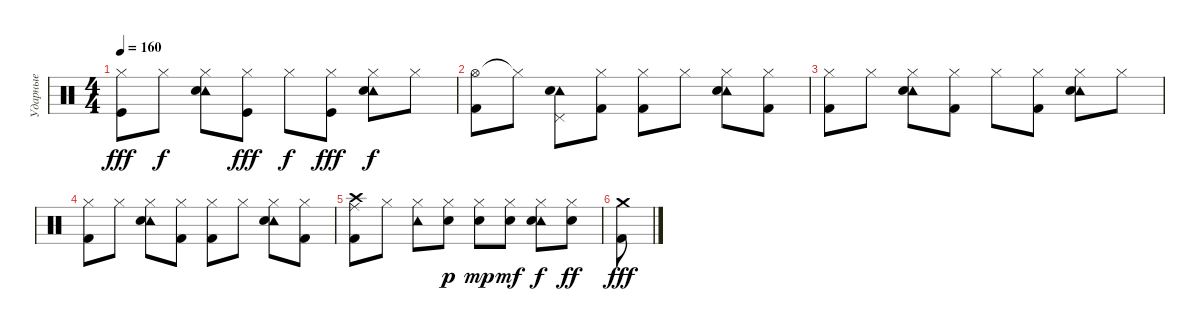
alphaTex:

\track ("Ударные" "Ударные") {instrument percussion}
\staff {score}
\articulation defaults
\ts (4 4)
\tempo 160
\clef neutral
\ks c
("Hi-Hat (closed)" "Kick (hit)").8{dy fff} "Hi-Hat (closed)".8{dy f} ("Hi-Hat (closed)" "Tambourine (hit)" "Snare (hit) 2").8 ("Hi-Hat (closed)" "Kick (hit)").8{dy fff} "Hi-Hat (closed)".8{dy f} ("Hi-Hat (closed)" "Kick (hit)").8{dy fff} ("Hi-Hat (closed)" "Tambourine (hit)" "Snare (hit) 2").8{dy f} "Hi-Hat (closed)".8 |
("Hi-Hat (open)" "Kick (hit) 2").8 "Hi-Hat (closed)"{t}.8 ("Pedal Hi-Hat (hit)" "Tambourine (hit)" "Snare (hit) 2").8 ("Hi-Hat (closed)" "Kick (hit) 2").8 ("Hi-Hat (closed)" "Kick (hit) 2").8 "Hi-Hat (closed)".8 ("Hi-Hat (closed)" "Tambourine (hit)" "Snare (hit) 2").8 ("Hi-Hat (closed)" "Kick (hit) 2").8 |
("Hi-Hat (closed)" "Kick (hit) 2").8 "Hi-Hat (closed)".8 ("Hi-Hat (closed)" "Tambourine (hit)" "Snare (hit) 2").8 ("Hi-Hat (closed)" "Kick (hit) 2").8 "Hi-Hat (closed)".8 ("Hi-Hat (closed)" "Kick (hit) 2").8 ("Hi-Hat (closed)" "Tambourine (hit)" "Snare (hit) 2").8 "Hi-Hat (closed)".8 |
("Hi-Hat (closed)" "Kick (hit) 2").8 "Hi-Hat (closed)".8 ("Hi-Hat (closed)" "Tambourine (hit)" "Snare (hit) 2").8 ("Hi-Hat (closed)" "Kick (hit) 2").8 ("Hi-Hat (closed)" "Kick (hit) 2").8 "Hi-Hat (closed)".8 ("Hi-Hat (closed)" "Tambourine (hit)" "Snare (hit) 2").8 ("Hi-Hat (closed)" "Kick (hit) 2").8 |
("Crash high (hit)" "Ride (middle)" "Kick (hit) 2").8 "Hi-Hat (closed)".8 ("Hi-Hat (closed)" "Tambourine (hit)").8 ("Hi-Hat (closed)" "Snare (hit) 2").8{dy p} ("Hi-Hat (closed)" "Snare (hit) 2").8{dy mp} ("Hi-Hat (closed)" "Snare (hit) 2").8{dy mf} ("Hi-Hat (closed)" "Tambourine (hit)" "Snare (hit) 2").8{dy f} ("Hi-Hat (closed)" "Snare (hit) 2").8{dy ff} |
("Crash medium (hit)" "Kick (hit) 2").8{dy fff}
